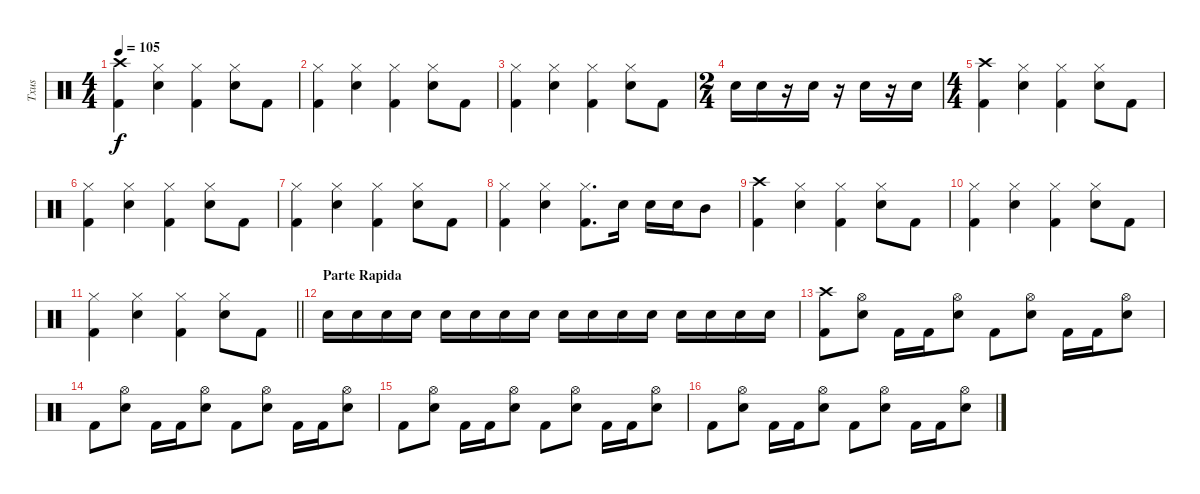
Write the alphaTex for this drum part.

\track ("Txus" "Txus") {instrument percussion}
\staff {score}
\articulation defaults
\ts (4 4)
\tempo 105
\clef neutral
\ks c
("Kick (hit) 2" "Crash high (hit)").4{dy f} ("Electric Snare (hit)" "Hi-Hat (closed)").4 ("Kick (hit) 2" "Hi-Hat (closed)").4 ("Electric Snare (hit)" "Hi-Hat (closed)").8 "Kick (hit) 2".8 |
("Kick (hit) 2" "Hi-Hat (closed)").4 ("Electric Snare (hit)" "Hi-Hat (closed)").4 ("Kick (hit) 2" "Hi-Hat (closed)").4 ("Electric Snare (hit)" "Hi-Hat (closed)").8 "Kick (hit) 2".8 |
("Kick (hit) 2" "Hi-Hat (closed)").4 ("Electric Snare (hit)" "Hi-Hat (closed)").4 ("Kick (hit) 2" "Hi-Hat (closed)").4 ("Electric Snare (hit)" "Hi-Hat (closed)").8 "Kick (hit) 2".8 |
\ts (2 4)
"Electric Snare (hit)".16 "Electric Snare (hit)".16 r.16 "Electric Snare (hit)".16 r.16 "Electric Snare (hit)".16 r.16 "Electric Snare (hit)".16 |
\ts (4 4)
("Kick (hit) 2" "Crash high (hit)").4 ("Electric Snare (hit)" "Hi-Hat (closed)").4 ("Kick (hit) 2" "Hi-Hat (closed)").4 ("Electric Snare (hit)" "Hi-Hat (closed)").8 "Kick (hit) 2".8 |
("Kick (hit) 2" "Hi-Hat (closed)").4 ("Electric Snare (hit)" "Hi-Hat (closed)").4 ("Kick (hit) 2" "Hi-Hat (closed)").4 ("Electric Snare (hit)" "Hi-Hat (closed)").8 "Kick (hit) 2".8 |
("Kick (hit) 2" "Hi-Hat (closed)").4 ("Electric Snare (hit)" "Hi-Hat (closed)").4 ("Kick (hit) 2" "Hi-Hat (closed)").4 ("Electric Snare (hit)" "Hi-Hat (closed)").8 "Kick (hit) 2".8 |
("Kick (hit) 2" "Hi-Hat (closed)").4 ("Electric Snare (hit)" "Hi-Hat (closed)").4 ("Kick (hit) 2" "Hi-Hat (closed)").8{d} "Electric Snare (hit)".16 "Electric Snare (hit)".16 "Electric Snare (hit)".16 "Mid Tom (hit)".8 |
("Kick (hit) 2" "Crash high (hit)").4 ("Electric Snare (hit)" "Hi-Hat (closed)").4 ("Kick (hit) 2" "Hi-Hat (closed)").4 ("Electric Snare (hit)" "Hi-Hat (closed)").8 "Kick (hit) 2".8 |
("Kick (hit) 2" "Hi-Hat (closed)").4 ("Electric Snare (hit)" "Hi-Hat (closed)").4 ("Kick (hit) 2" "Hi-Hat (closed)").4 ("Electric Snare (hit)" "Hi-Hat (closed)").8 "Kick (hit) 2".8 |
\barLineRight lightlight
("Kick (hit) 2" "Hi-Hat (closed)").4 ("Electric Snare (hit)" "Hi-Hat (closed)").4 ("Kick (hit) 2" "Hi-Hat (closed)").4 ("Electric Snare (hit)" "Hi-Hat (closed)").8 "Kick (hit) 2".8 |
\section ("" "Parte Rapida")
"Electric Snare (hit)".16 "Electric Snare (hit)".16 "Electric Snare (hit)".16 "Electric Snare (hit)".16 "Electric Snare (hit)".16 "Electric Snare (hit)".16 "Electric Snare (hit)".16 "Electric Snare (hit)".16 "Electric Snare (hit)".16 "Electric Snare (hit)".16 "Electric Snare (hit)".16 "Electric Snare (hit)".16 "Electric Snare (hit)".16 "Electric Snare (hit)".16 "Electric Snare (hit)".16 "Electric Snare (hit)".16 |
("Kick (hit) 2" "Crash high (hit)").8 ("Electric Snare (hit)" "Hi-Hat (open)").8 "Kick (hit) 2".16 "Kick (hit) 2".16 ("Electric Snare (hit)" "Hi-Hat (open)").8 "Kick (hit) 2".8 ("Electric Snare (hit)" "Hi-Hat (open)").8 "Kick (hit) 2".16 "Kick (hit) 2".16 ("Electric Snare (hit)" "Hi-Hat (open)").8 |
"Kick (hit) 2".8 ("Electric Snare (hit)" "Hi-Hat (open)").8 "Kick (hit) 2".16 "Kick (hit) 2".16 ("Electric Snare (hit)" "Hi-Hat (open)").8 "Kick (hit) 2".8 ("Electric Snare (hit)" "Hi-Hat (open)").8 "Kick (hit) 2".16 "Kick (hit) 2".16 ("Electric Snare (hit)" "Hi-Hat (open)").8 |
"Kick (hit) 2".8 ("Electric Snare (hit)" "Hi-Hat (open)").8 "Kick (hit) 2".16 "Kick (hit) 2".16 ("Electric Snare (hit)" "Hi-Hat (open)").8 "Kick (hit) 2".8 ("Electric Snare (hit)" "Hi-Hat (open)").8 "Kick (hit) 2".16 "Kick (hit) 2".16 ("Electric Snare (hit)" "Hi-Hat (open)").8 |
"Kick (hit) 2".8 ("Electric Snare (hit)" "Hi-Hat (open)").8 "Kick (hit) 2".16 "Kick (hit) 2".16 ("Electric Snare (hit)" "Hi-Hat (open)").8 "Kick (hit) 2".8 ("Electric Snare (hit)" "Hi-Hat (open)").8 "Kick (hit) 2".16 "Kick (hit) 2".16 ("Electric Snare (hit)" "Hi-Hat (open)").8
